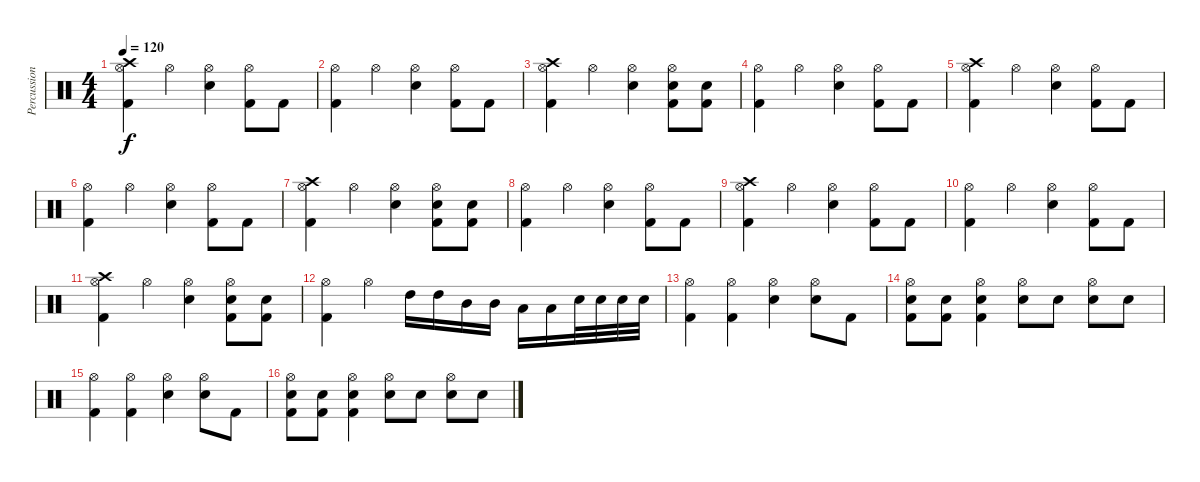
\track ("Percussion" "Percussion") {instrument percussion}
\staff {score}
\articulation defaults
\ts (4 4)
\tempo 120
\clef neutral
\ks c
("Crash high (hit)" "Hi-Hat (open)" "Kick (hit) 2").4{dy f} "Hi-Hat (open)".4 ("Hi-Hat (open)" "Snare (hit) 2").4 ("Hi-Hat (open)" "Kick (hit) 2").8 "Kick (hit) 2".8 |
("Hi-Hat (open)" "Kick (hit) 2").4 "Hi-Hat (open)".4 ("Hi-Hat (open)" "Snare (hit) 2").4 ("Hi-Hat (open)" "Kick (hit) 2").8 "Kick (hit) 2".8 |
("Crash high (hit)" "Hi-Hat (open)" "Kick (hit) 2").4 "Hi-Hat (open)".4 ("Hi-Hat (open)" "Snare (hit) 2").4 ("Hi-Hat (open)" "Snare (hit) 2" "Kick (hit) 2").8 ("Snare (hit) 2" "Kick (hit) 2").8 |
("Hi-Hat (open)" "Kick (hit) 2").4 "Hi-Hat (open)".4 ("Hi-Hat (open)" "Snare (hit) 2").4 ("Hi-Hat (open)" "Kick (hit) 2").8 "Kick (hit) 2".8 |
("Crash high (hit)" "Hi-Hat (open)" "Kick (hit) 2").4 "Hi-Hat (open)".4 ("Hi-Hat (open)" "Snare (hit) 2").4 ("Hi-Hat (open)" "Kick (hit) 2").8 "Kick (hit) 2".8 |
("Hi-Hat (open)" "Kick (hit) 2").4 "Hi-Hat (open)".4 ("Hi-Hat (open)" "Snare (hit) 2").4 ("Hi-Hat (open)" "Kick (hit) 2").8 "Kick (hit) 2".8 |
("Crash high (hit)" "Hi-Hat (open)" "Kick (hit) 2").4 "Hi-Hat (open)".4 ("Hi-Hat (open)" "Snare (hit) 2").4 ("Hi-Hat (open)" "Snare (hit) 2" "Kick (hit) 2").8 ("Snare (hit) 2" "Kick (hit) 2").8 |
("Hi-Hat (open)" "Kick (hit) 2").4 "Hi-Hat (open)".4 ("Hi-Hat (open)" "Snare (hit) 2").4 ("Hi-Hat (open)" "Kick (hit) 2").8 "Kick (hit) 2".8 |
("Crash high (hit)" "Hi-Hat (open)" "Kick (hit) 2").4 "Hi-Hat (open)".4 ("Hi-Hat (open)" "Snare (hit) 2").4 ("Hi-Hat (open)" "Kick (hit) 2").8 "Kick (hit) 2".8 |
("Hi-Hat (open)" "Kick (hit) 2").4 "Hi-Hat (open)".4 ("Hi-Hat (open)" "Snare (hit) 2").4 ("Hi-Hat (open)" "Kick (hit) 2").8 "Kick (hit) 2".8 |
("Crash high (hit)" "Hi-Hat (open)" "Kick (hit) 2").4 "Hi-Hat (open)".4 ("Hi-Hat (open)" "Snare (hit) 2").4 ("Hi-Hat (open)" "Snare (hit) 2" "Kick (hit) 2").8 ("Snare (hit) 2" "Kick (hit) 2").8 |
("Hi-Hat (open)" "Kick (hit) 2").4 "Hi-Hat (open)".4 "High Tom (hit)".16 "High Tom (hit)".16 "Mid Tom (hit)".16 "Mid Tom (hit)".16 "Low Tom (hit)".16 "Low Tom (hit)".16 "Snare (hit) 2".32 "Snare (hit) 2".32 "Snare (hit) 2".32 "Snare (hit) 2".32 |
("Hi-Hat (open)" "Kick (hit) 2").4{volume 16} ("Hi-Hat (open)" "Kick (hit) 2").4 ("Hi-Hat (open)" "Snare (hit) 2").4 ("Hi-Hat (open)" "Snare (hit) 2").8 "Kick (hit) 2".8 |
("Hi-Hat (open)" "Snare (hit) 2" "Kick (hit) 2").8 ("Snare (hit) 2" "Kick (hit) 2").8 ("Hi-Hat (open)" "Snare (hit) 2" "Kick (hit) 2").4 ("Hi-Hat (open)" "Snare (hit) 2").8 "Snare (hit) 2".8 ("Hi-Hat (open)" "Snare (hit) 2").8 "Snare (hit) 2".8 |
("Hi-Hat (open)" "Kick (hit) 2").4{volume 16} ("Hi-Hat (open)" "Kick (hit) 2").4 ("Hi-Hat (open)" "Snare (hit) 2").4 ("Hi-Hat (open)" "Snare (hit) 2").8 "Kick (hit) 2".8 |
("Hi-Hat (open)" "Snare (hit) 2" "Kick (hit) 2").8 ("Snare (hit) 2" "Kick (hit) 2").8 ("Hi-Hat (open)" "Snare (hit) 2" "Kick (hit) 2").4 ("Hi-Hat (open)" "Snare (hit) 2").8 "Snare (hit) 2".8 ("Hi-Hat (open)" "Snare (hit) 2").8 "Snare (hit) 2".8
